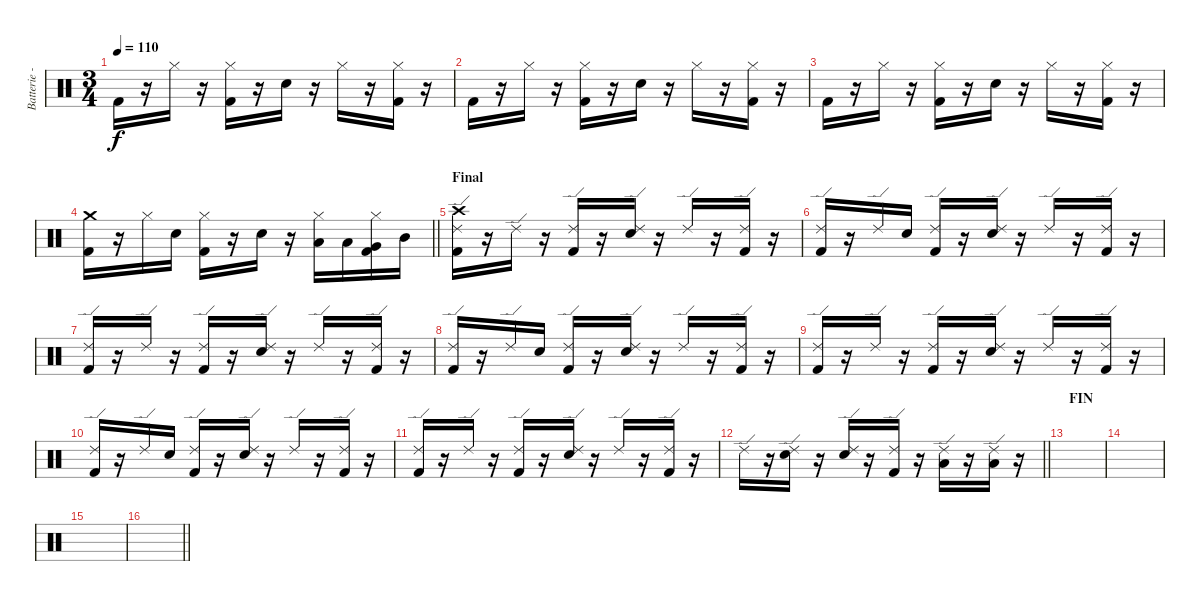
\track ("Batterie - Toshiya" "Batterie -") {instrument percussion}
\staff {score}
\articulation defaults
\ts (3 4)
\tempo 110
\clef neutral
\ks c "Kick (hit) 2".16{dy f}
r.16 "Hi-Hat (closed)".16 r.16 ("Hi-Hat (closed)" "Kick (hit) 2").16 r.16 "Electric Snare (hit)".16 r.16 "Hi-Hat (closed)".16 r.16 ("Hi-Hat (closed)" "Kick (hit) 2").16 r.16 |
"Kick (hit) 2".16 r.16 "Hi-Hat (closed)".16 r.16 ("Hi-Hat (closed)" "Kick (hit) 2").16 r.16 "Electric Snare (hit)".16 r.16 "Hi-Hat (closed)".16 r.16 ("Hi-Hat (closed)" "Kick (hit) 2").16 r.16 |
"Kick (hit) 2".16 r.16 "Hi-Hat (closed)".16 r.16 ("Hi-Hat (closed)" "Kick (hit) 2").16 r.16 "Electric Snare (hit)".16 r.16 "Hi-Hat (closed)".16 r.16 ("Hi-Hat (closed)" "Kick (hit) 2").16 r.16 |
\barLineRight lightlight
("Crash medium (hit)" "Kick (hit) 2").16 r.16 "Hi-Hat (closed)".16 "Electric Snare (hit)".16 ("Hi-Hat (closed)" "Kick (hit) 2").16 r.16 "Electric Snare (hit)".16 r.16 ("Hi-Hat (closed)" "Low Tom (hit)").16 "Low Floor Tom (hit)".16 ("Hi-Hat (closed)" "Very Low Tom (hit)" "Kick (hit) 2").16 "Mid Tom (hit)".16 |
\section ("" "Final")
("Ride (edge) 2" "Crash high (hit)" "Kick (hit) 2").16 r.16 "Ride (edge) 2".16 r.16 ("Ride (edge) 2" "Kick (hit) 2").16 r.16 ("Ride (edge) 2" "Electric Snare (hit)").16 r.16 "Ride (edge) 2".16 r.16 ("Ride (edge) 2" "Kick (hit) 2").16 r.16 |
("Ride (edge) 2" "Kick (hit) 2").16 r.16 "Ride (edge) 2".16 "Electric Snare (hit)".16 ("Ride (edge) 2" "Kick (hit) 2").16 r.16 ("Ride (edge) 2" "Electric Snare (hit)").16 r.16 "Ride (edge) 2".16 r.16 ("Ride (edge) 2" "Kick (hit) 2").16 r.16 |
("Ride (edge) 2" "Kick (hit) 2").16 r.16 "Ride (edge) 2".16 r.16 ("Ride (edge) 2" "Kick (hit) 2").16 r.16 ("Ride (edge) 2" "Electric Snare (hit)").16 r.16 "Ride (edge) 2".16 r.16 ("Ride (edge) 2" "Kick (hit) 2").16 r.16 |
("Ride (edge) 2" "Kick (hit) 2").16 r.16 "Ride (edge) 2".16 "Electric Snare (hit)".16 ("Ride (edge) 2" "Kick (hit) 2").16 r.16 ("Ride (edge) 2" "Electric Snare (hit)").16 r.16 "Ride (edge) 2".16 r.16 ("Ride (edge) 2" "Kick (hit) 2").16 r.16 |
("Ride (edge) 2" "Kick (hit) 2").16 r.16 "Ride (edge) 2".16 r.16 ("Ride (edge) 2" "Kick (hit) 2").16 r.16 ("Ride (edge) 2" "Electric Snare (hit)").16 r.16 "Ride (edge) 2".16 r.16 ("Ride (edge) 2" "Kick (hit) 2").16 r.16 |
("Ride (edge) 2" "Kick (hit) 2").16 r.16 "Ride (edge) 2".16 "Electric Snare (hit)".16 ("Ride (edge) 2" "Kick (hit) 2").16 r.16 ("Ride (edge) 2" "Electric Snare (hit)").16 r.16 "Ride (edge) 2".16 r.16 ("Ride (edge) 2" "Kick (hit) 2").16 r.16 |
("Ride (edge) 2" "Kick (hit) 2").16 r.16 "Ride (edge) 2".16 r.16 ("Ride (edge) 2" "Kick (hit) 2").16 r.16 ("Ride (edge) 2" "Electric Snare (hit)").16 r.16 "Ride (edge) 2".16 r.16 ("Ride (edge) 2" "Kick (hit) 2").16 r.16 |
\barLineRight lightlight "Ride (edge) 2".16
r.16 ("Ride (edge) 2" "Electric Snare (hit)").16 r.16 ("Ride (edge) 2" "Electric Snare (hit)").16 r.16 ("Ride (edge) 2" "Kick (hit) 2").16 r.16 ("Ride (edge) 2" "Low Floor Tom (hit)").16 r.16 ("Ride (edge) 2" "Low Floor Tom (hit)").16 r.16 |
\section ("" "FIN")
|
|
|
\barLineRight lightlight
